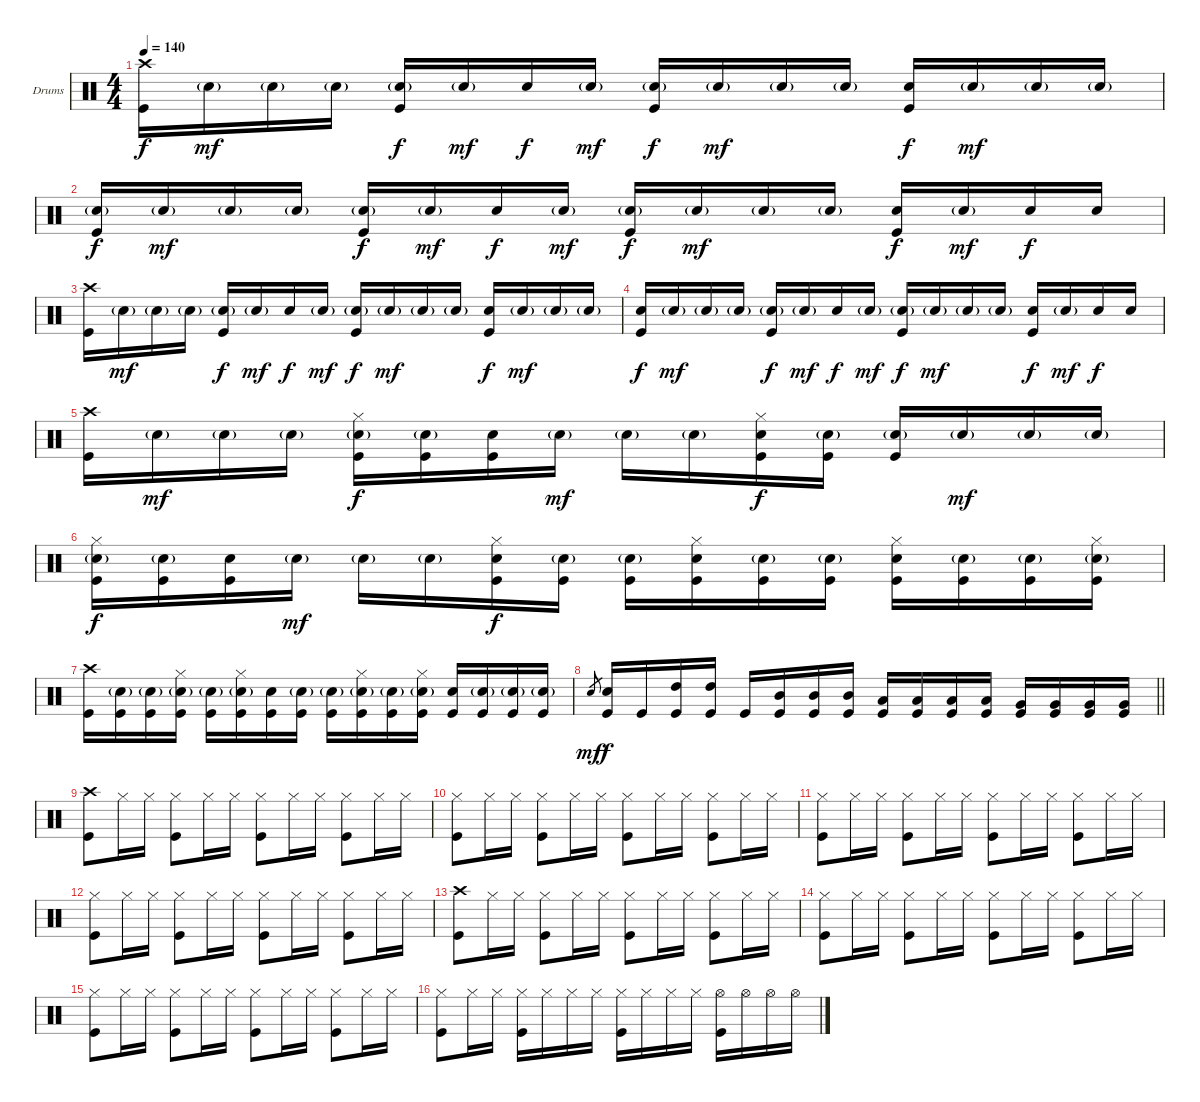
\bracketExtendMode groupsimilarinstruments
\firstSystemTrackNameOrientation horizontal
\otherSystemsTrackNameOrientation horizontal
\track ("Drumkit" "Drums") {instrument percussion}
\staff {score}
\articulation defaults
\ts (4 4)
\tempo 140
\clef neutral
\ks c
("Crash high (hit)" "Kick (hit)").16{dy f} "Snare (hit) 2"{g}.16{dy mf} "Snare (hit) 2"{g}.16 "Snare (hit) 2"{g}.16 ("Snare (hit) 2"{g} "Kick (hit)").16{dy f} "Snare (hit) 2"{g}.16{dy mf} "Snare (hit) 2".16{dy f} "Snare (hit) 2"{g}.16{dy mf} ("Snare (hit) 2"{g} "Kick (hit)").16{dy f} "Snare (hit) 2"{g}.16{dy mf} "Snare (hit) 2"{g}.16 "Snare (hit) 2"{g}.16 ("Snare (hit) 2" "Kick (hit)").16{dy f} "Snare (hit) 2"{g}.16{dy mf} "Snare (hit) 2"{g}.16 "Snare (hit) 2"{g}.16 |
("Snare (hit) 2"{g} "Kick (hit)").16{dy f} "Snare (hit) 2"{g}.16{dy mf} "Snare (hit) 2"{g}.16 "Snare (hit) 2"{g}.16 ("Snare (hit) 2"{g} "Kick (hit)").16{dy f} "Snare (hit) 2"{g}.16{dy mf} "Snare (hit) 2".16{dy f} "Snare (hit) 2"{g}.16{dy mf} ("Snare (hit) 2"{g} "Kick (hit)").16{dy f} "Snare (hit) 2"{g}.16{dy mf} "Snare (hit) 2"{g}.16 "Snare (hit) 2"{g}.16 ("Snare (hit) 2" "Kick (hit)").16{dy f} "Snare (hit) 2"{g}.16{dy mf} "Snare (hit) 2".16{dy f} "Snare (hit) 2".16 |
("Crash high (hit)" "Kick (hit)").16 "Snare (hit) 2"{g}.16{dy mf} "Snare (hit) 2"{g}.16 "Snare (hit) 2"{g}.16 ("Snare (hit) 2"{g} "Kick (hit)").16{dy f} "Snare (hit) 2"{g}.16{dy mf} "Snare (hit) 2".16{dy f} "Snare (hit) 2"{g}.16{dy mf} ("Snare (hit) 2"{g} "Kick (hit)").16{dy f} "Snare (hit) 2"{g}.16{dy mf} "Snare (hit) 2"{g}.16 "Snare (hit) 2"{g}.16 ("Snare (hit) 2" "Kick (hit)").16{dy f} "Snare (hit) 2"{g}.16{dy mf} "Snare (hit) 2"{g}.16 "Snare (hit) 2"{g}.16 |
("Snare (hit) 2" "Kick (hit)").16{dy f} "Snare (hit) 2"{g}.16{dy mf} "Snare (hit) 2"{g}.16 "Snare (hit) 2"{g}.16 ("Snare (hit) 2"{g} "Kick (hit)").16{dy f} "Snare (hit) 2"{g}.16{dy mf} "Snare (hit) 2".16{dy f} "Snare (hit) 2"{g}.16{dy mf} ("Snare (hit) 2"{g} "Kick (hit)").16{dy f} "Snare (hit) 2"{g}.16{dy mf} "Snare (hit) 2"{g}.16 "Snare (hit) 2"{g}.16 ("Snare (hit) 2" "Kick (hit)").16{dy f} "Snare (hit) 2"{g}.16{dy mf} "Snare (hit) 2".16{dy f} "Snare (hit) 2".16 |
("Crash high (hit)" "Kick (hit)").16 "Snare (hit) 2"{g}.16{dy mf} "Snare (hit) 2"{g}.16 "Snare (hit) 2"{g}.16 ("Hi-Hat (closed)" "Snare (hit) 2"{g} "Kick (hit)").16{dy f} ("Snare (hit) 2"{g} "Kick (hit)").16 ("Snare (hit) 2" "Kick (hit)").16 "Snare (hit) 2"{g}.16{dy mf} "Snare (hit) 2"{g}.16 "Snare (hit) 2"{g}.16 ("Hi-Hat (closed)" "Snare (hit) 2" "Kick (hit)").16{dy f} ("Snare (hit) 2"{g} "Kick (hit)").16 ("Snare (hit) 2"{g} "Kick (hit)").16 "Snare (hit) 2"{g}.16{dy mf} "Snare (hit) 2"{g}.16 "Snare (hit) 2"{g}.16 |
("Hi-Hat (closed)" "Snare (hit) 2"{g} "Kick (hit)").16{dy f} ("Snare (hit) 2"{g} "Kick (hit)").16 ("Snare (hit) 2" "Kick (hit)").16 "Snare (hit) 2"{g}.16{dy mf} "Snare (hit) 2"{g}.16 "Snare (hit) 2"{g}.16 ("Hi-Hat (closed)" "Snare (hit) 2" "Kick (hit)").16{dy f} ("Snare (hit) 2"{g} "Kick (hit)").16 ("Snare (hit) 2"{g} "Kick (hit)").16 ("Hi-Hat (closed)" "Snare (hit) 2" "Kick (hit)").16 ("Snare (hit) 2"{g} "Kick (hit)").16 ("Snare (hit) 2"{g} "Kick (hit)").16 ("Hi-Hat (closed)" "Snare (hit) 2" "Kick (hit)").16 ("Snare (hit) 2"{g} "Kick (hit)").16 ("Snare (hit) 2"{g} "Kick (hit)").16 ("Hi-Hat (closed)" "Snare (hit) 2"{g} "Kick (hit)").16 |
("Crash high (hit)" "Kick (hit)").16 ("Snare (hit) 2"{g} "Kick (hit)").16 ("Snare (hit) 2"{g} "Kick (hit)").16 ("Hi-Hat (closed)" "Snare (hit) 2"{g} "Kick (hit)").16 ("Snare (hit) 2"{g} "Kick (hit)").16 ("Hi-Hat (closed)" "Snare (hit) 2"{g} "Kick (hit)").16 ("Snare (hit) 2" "Kick (hit)").16 ("Snare (hit) 2"{g} "Kick (hit)").16 ("Snare (hit) 2"{g} "Kick (hit)").16 ("Hi-Hat (closed)" "Snare (hit) 2"{g} "Kick (hit)").16 ("Snare (hit) 2"{g} "Kick (hit)").16 ("Hi-Hat (closed)" "Snare (hit) 2"{g} "Kick (hit)").16 ("Snare (hit) 2" "Kick (hit)").16 ("Snare (hit) 2"{g} "Kick (hit)").16 ("Snare (hit) 2"{g} "Kick (hit)").16 ("Snare (hit) 2"{g} "Kick (hit)").16 |
\barLineRight lightlight "Snare (hit) 2".8{gr dy mf}
("Snare (hit) 2" "Kick (hit)").16{dy f} "Kick (hit)".16 ("High Tom (hit)" "Kick (hit)").16 ("High Tom (hit)" "Kick (hit)").16 "Kick (hit)".16 ("Mid Tom (hit)" "Kick (hit)").16 ("Mid Tom (hit)" "Kick (hit)").16 ("Mid Tom (hit)" "Kick (hit)").16 ("Low Tom (hit)" "Kick (hit)").16 ("Low Tom (hit)" "Kick (hit)").16 ("Low Tom (hit)" "Kick (hit)").16 ("Low Tom (hit)" "Kick (hit)").16 ("Very Low Tom (hit)" "Kick (hit)").16 ("Very Low Tom (hit)" "Kick (hit)").16 ("Very Low Tom (hit)" "Kick (hit)").16 ("Very Low Tom (hit)" "Kick (hit)").16 |
("Crash high (hit)" "Kick (hit)").8 "Hi-Hat (closed)".16 "Hi-Hat (closed)".16 ("Hi-Hat (closed)" "Kick (hit)").8 "Hi-Hat (closed)".16 "Hi-Hat (closed)".16 ("Hi-Hat (closed)" "Kick (hit)").8 "Hi-Hat (closed)".16 "Hi-Hat (closed)".16 ("Hi-Hat (closed)" "Kick (hit)").8 "Hi-Hat (closed)".16 "Hi-Hat (closed)".16 |
("Hi-Hat (closed)" "Kick (hit)").8 "Hi-Hat (closed)".16 "Hi-Hat (closed)".16 ("Hi-Hat (closed)" "Kick (hit)").8 "Hi-Hat (closed)".16 "Hi-Hat (closed)".16 ("Hi-Hat (closed)" "Kick (hit)").8 "Hi-Hat (closed)".16 "Hi-Hat (closed)".16 ("Hi-Hat (closed)" "Kick (hit)").8 "Hi-Hat (closed)".16 "Hi-Hat (closed)".16 |
("Hi-Hat (closed)" "Kick (hit)").8 "Hi-Hat (closed)".16 "Hi-Hat (closed)".16 ("Hi-Hat (closed)" "Kick (hit)").8 "Hi-Hat (closed)".16 "Hi-Hat (closed)".16 ("Hi-Hat (closed)" "Kick (hit)").8 "Hi-Hat (closed)".16 "Hi-Hat (closed)".16 ("Hi-Hat (closed)" "Kick (hit)").8 "Hi-Hat (closed)".16 "Hi-Hat (closed)".16 |
("Hi-Hat (closed)" "Kick (hit)").8 "Hi-Hat (closed)".16 "Hi-Hat (closed)".16 ("Hi-Hat (closed)" "Kick (hit)").8 "Hi-Hat (closed)".16 "Hi-Hat (closed)".16 ("Hi-Hat (closed)" "Kick (hit)").8 "Hi-Hat (closed)".16 "Hi-Hat (closed)".16 ("Hi-Hat (closed)" "Kick (hit)").8 "Hi-Hat (closed)".16 "Hi-Hat (closed)".16 |
("Crash high (hit)" "Kick (hit)").8 "Hi-Hat (closed)".16 "Hi-Hat (closed)".16 ("Hi-Hat (closed)" "Kick (hit)").8 "Hi-Hat (closed)".16 "Hi-Hat (closed)".16 ("Hi-Hat (closed)" "Kick (hit)").8 "Hi-Hat (closed)".16 "Hi-Hat (closed)".16 ("Hi-Hat (closed)" "Kick (hit)").8 "Hi-Hat (closed)".16 "Hi-Hat (closed)".16 |
("Hi-Hat (closed)" "Kick (hit)").8 "Hi-Hat (closed)".16 "Hi-Hat (closed)".16 ("Hi-Hat (closed)" "Kick (hit)").8 "Hi-Hat (closed)".16 "Hi-Hat (closed)".16 ("Hi-Hat (closed)" "Kick (hit)").8 "Hi-Hat (closed)".16 "Hi-Hat (closed)".16 ("Hi-Hat (closed)" "Kick (hit)").8 "Hi-Hat (closed)".16 "Hi-Hat (closed)".16 |
("Hi-Hat (closed)" "Kick (hit)").8 "Hi-Hat (closed)".16 "Hi-Hat (closed)".16 ("Hi-Hat (closed)" "Kick (hit)").8 "Hi-Hat (closed)".16 "Hi-Hat (closed)".16 ("Hi-Hat (closed)" "Kick (hit)").8 "Hi-Hat (closed)".16 "Hi-Hat (closed)".16 ("Hi-Hat (closed)" "Kick (hit)").8 "Hi-Hat (closed)".16 "Hi-Hat (closed)".16 |
("Hi-Hat (closed)" "Kick (hit)").8 "Hi-Hat (closed)".16 "Hi-Hat (closed)".16 ("Hi-Hat (closed)" "Kick (hit)").16 "Hi-Hat (closed)".16 "Hi-Hat (closed)".16 "Hi-Hat (closed)".16 ("Hi-Hat (closed)" "Kick (hit)").16 "Hi-Hat (closed)".16 "Hi-Hat (closed)".16 "Hi-Hat (closed)".16 ("Hi-Hat (open)" "Kick (hit)").16 "Hi-Hat (open)".16 "Hi-Hat (open)".16 "Hi-Hat (open)".16
